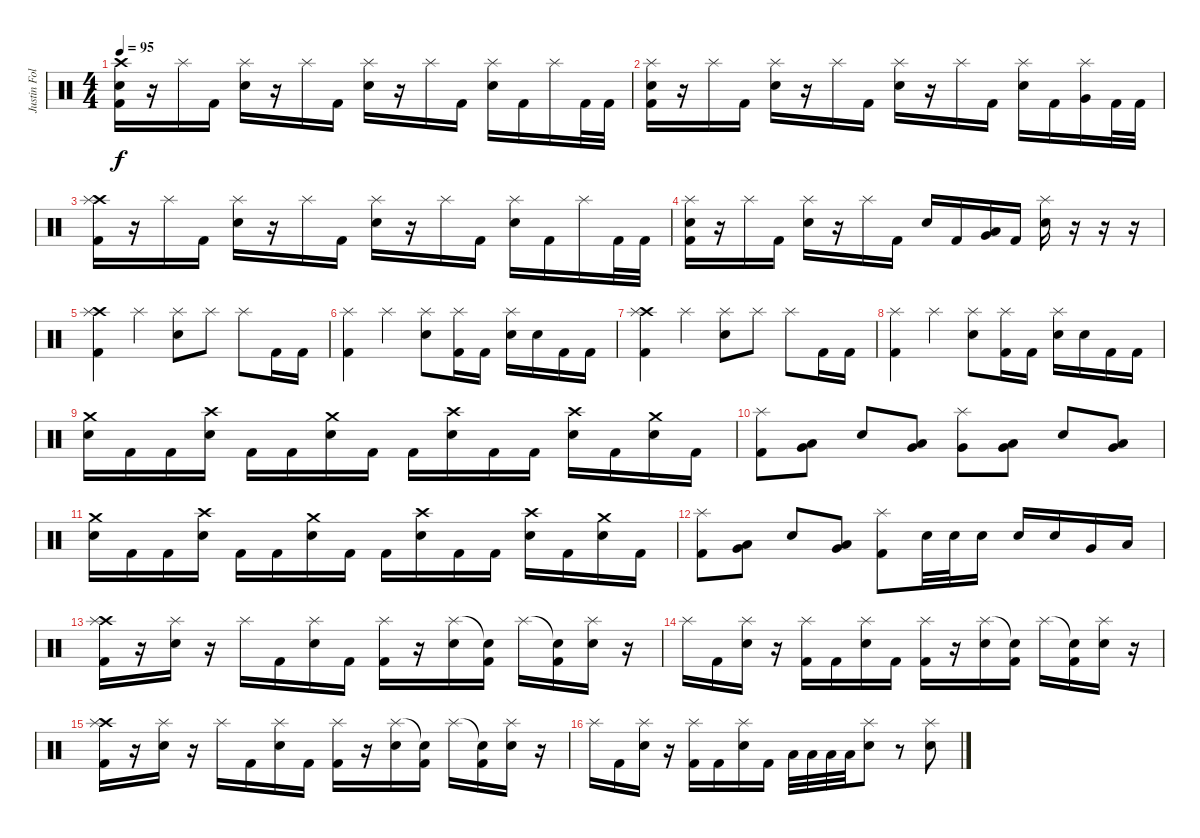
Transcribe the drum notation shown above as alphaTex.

\track ("Justin Foley" "Justin Fol") {instrument percussion}
\staff {score}
\articulation defaults
\ts (4 4)
\tempo 95
\clef neutral
\ks c
("Crash high (hit)" "Snare (hit) 2" "Kick (hit) 2").16{dy f} r.16 "Splash (hit)".16 "Kick (hit) 2".16 ("Splash (hit)" "Snare (hit) 2").16 r.16 "Splash (hit)".16 "Kick (hit) 2".16 ("Splash (hit)" "Snare (hit) 2").16 r.16 "Splash (hit)".16 "Kick (hit) 2".16 ("Splash (hit)" "Snare (hit) 2").16 "Kick (hit) 2".16 "Splash (hit)".16 "Kick (hit) 2".32 "Kick (hit) 2".32 |
("Splash (hit)" "Snare (hit) 2" "Kick (hit) 2").16 r.16 "Splash (hit)".16 "Kick (hit) 2".16 ("Splash (hit)" "Snare (hit) 2").16 r.16 "Splash (hit)".16 "Kick (hit) 2".16 ("Splash (hit)" "Snare (hit) 2").16 r.16 "Splash (hit)".16 "Kick (hit) 2".16 ("Splash (hit)" "Snare (hit) 2").16 "Kick (hit) 2".16 ("Splash (hit)" "Very Low Tom (hit)").16 "Kick (hit) 2".32 "Kick (hit) 2".32 |
("Crash high (hit)" "Splash (hit)" "Kick (hit) 2").16 r.16 "Splash (hit)".16 "Kick (hit) 2".16 ("Splash (hit)" "Snare (hit) 2").16 r.16 "Splash (hit)".16 "Kick (hit) 2".16 ("Splash (hit)" "Snare (hit) 2").16 r.16 "Splash (hit)".16 "Kick (hit) 2".16 ("Splash (hit)" "Snare (hit) 2").16 "Kick (hit) 2".16 "Splash (hit)".16 "Kick (hit) 2".32 "Kick (hit) 2".32 |
("Splash (hit)" "Snare (hit) 2" "Kick (hit) 2").16 r.16 "Splash (hit)".16 "Kick (hit) 2".16 ("Splash (hit)" "Snare (hit) 2").16 r.16 "Splash (hit)".16 "Kick (hit) 2".16 "Snare (hit) 2".16 "Kick (hit) 2".16 ("Low Floor Tom (hit)" "Very Low Tom (hit)").16 "Kick (hit) 2".16 ("Splash (hit)" "Snare (hit) 2").16 r.16 r.16 r.16 |
("Crash high (hit)" "Splash (hit)" "Kick (hit) 2").4 "Splash (hit)".4 ("Splash (hit)" "Snare (hit) 2").8 "Splash (hit)".8 "Splash (hit)".8 "Kick (hit) 2".16 "Kick (hit) 2".16 |
("Splash (hit)" "Kick (hit) 2").4 "Splash (hit)".4 ("Splash (hit)" "Snare (hit) 2").8 ("Splash (hit)" "Kick (hit) 2").16 "Kick (hit) 2".16 ("Splash (hit)" "Snare (hit) 2").16 "Snare (hit) 2".16 "Kick (hit) 2".16 "Kick (hit) 2".16 |
("Crash high (hit)" "Splash (hit)" "Kick (hit) 2").4 "Splash (hit)".4 ("Splash (hit)" "Snare (hit) 2").8 "Splash (hit)".8 "Splash (hit)".8 "Kick (hit) 2".16 "Kick (hit) 2".16 |
("Splash (hit)" "Kick (hit) 2").4 "Splash (hit)".4 ("Splash (hit)" "Snare (hit) 2").8 ("Splash (hit)" "Kick (hit) 2").16 "Kick (hit) 2".16 ("Splash (hit)" "Snare (hit) 2").16 "Snare (hit) 2".16 "Kick (hit) 2".16 "Kick (hit) 2".16 |
("Crash medium (hit)" "Snare (hit) 2").16 "Kick (hit) 2".16 "Kick (hit) 2".16 ("Crash high (hit)" "Snare (hit) 2").16 "Kick (hit) 2".16 "Kick (hit) 2".16 ("Crash medium (hit)" "Snare (hit) 2").16 "Kick (hit) 2".16 "Kick (hit) 2".16 ("Crash high (hit)" "Snare (hit) 2").16 "Kick (hit) 2".16 "Kick (hit) 2".16 ("Crash high (hit)" "Snare (hit) 2").16 "Kick (hit) 2".16 ("Crash medium (hit)" "Snare (hit) 2").16 "Kick (hit) 2".16 |
("Splash (hit)" "Kick (hit) 2").8 ("Low Floor Tom (hit)" "Very Low Tom (hit)").8 "Snare (hit) 2".8 ("Low Floor Tom (hit)" "Very Low Tom (hit)").8 ("Splash (hit)" "Very Low Tom (hit)").8 ("Low Floor Tom (hit)" "Very Low Tom (hit)").8 "Snare (hit) 2".8 ("Low Floor Tom (hit)" "Very Low Tom (hit)").8 |
("Crash medium (hit)" "Snare (hit) 2").16 "Kick (hit) 2".16 "Kick (hit) 2".16 ("Crash high (hit)" "Snare (hit) 2").16 "Kick (hit) 2".16 "Kick (hit) 2".16 ("Crash medium (hit)" "Snare (hit) 2").16 "Kick (hit) 2".16 "Kick (hit) 2".16 ("Crash high (hit)" "Snare (hit) 2").16 "Kick (hit) 2".16 "Kick (hit) 2".16 ("Crash high (hit)" "Snare (hit) 2").16 "Kick (hit) 2".16 ("Crash medium (hit)" "Snare (hit) 2").16 "Kick (hit) 2".16 |
("Splash (hit)" "Kick (hit) 2").8 ("Low Floor Tom (hit)" "Very Low Tom (hit)").8 "Snare (hit) 2".8 ("Low Floor Tom (hit)" "Very Low Tom (hit)").8 ("Splash (hit)" "Kick (hit) 2").8 "Snare (hit) 2".32 "Snare (hit) 2".32 "Snare (hit) 2".16 "Snare (hit) 2".16 "Snare (hit) 2".16 "Very Low Tom (hit)".16 "Low Floor Tom (hit)".16 |
("Crash high (hit)" "Splash (hit)" "Kick (hit) 2").16 r.16 ("Splash (hit)" "Snare (hit) 2").16 r.16 "Splash (hit)".16 "Kick (hit) 2".16 ("Splash (hit)" "Snare (hit) 2").16 "Kick (hit) 2".16 ("Splash (hit)" "Kick (hit) 2").16 r.16 ("Splash (hit)" "Snare (hit) 2").16 ("Snare (hit)"{t} "Kick (hit) 2").16 "Splash (hit)".16 ("Snare (hit)"{t} "Kick (hit) 2").16 ("Splash (hit)" "Snare (hit) 2").16 r.16 |
"Splash (hit)".16 "Kick (hit) 2".16 ("Splash (hit)" "Snare (hit) 2").16 r.16 ("Splash (hit)" "Kick (hit) 2").16 "Kick (hit) 2".16 ("Splash (hit)" "Snare (hit) 2").16 "Kick (hit) 2".16 ("Splash (hit)" "Kick (hit) 2").16 r.16 ("Splash (hit)" "Snare (hit) 2").16 ("Snare (hit)"{t} "Kick (hit) 2").16 "Splash (hit)".16 ("Snare (hit)"{t} "Kick (hit) 2").16 ("Splash (hit)" "Snare (hit) 2").16 r.16 |
("Crash high (hit)" "Splash (hit)" "Kick (hit) 2").16 r.16 ("Splash (hit)" "Snare (hit) 2").16 r.16 "Splash (hit)".16 "Kick (hit) 2".16 ("Splash (hit)" "Snare (hit) 2").16 "Kick (hit) 2".16 ("Splash (hit)" "Kick (hit) 2").16 r.16 ("Splash (hit)" "Snare (hit) 2").16 ("Snare (hit)"{t} "Kick (hit) 2").16 "Splash (hit)".16 ("Snare (hit)"{t} "Kick (hit) 2").16 ("Splash (hit)" "Snare (hit) 2").16 r.16 |
"Splash (hit)".16 "Kick (hit) 2".16 ("Splash (hit)" "Snare (hit) 2").16 r.16 ("Splash (hit)" "Kick (hit) 2").16 "Kick (hit) 2".16 ("Splash (hit)" "Snare (hit) 2").16 "Kick (hit) 2".16 "Low Floor Tom (hit)".32 "Low Floor Tom (hit)".32 "Low Floor Tom (hit)".32 "Low Floor Tom (hit)".32 ("Splash (hit)" "Snare (hit) 2").8 r.8 ("Splash (hit)" "Snare (hit) 2").8
